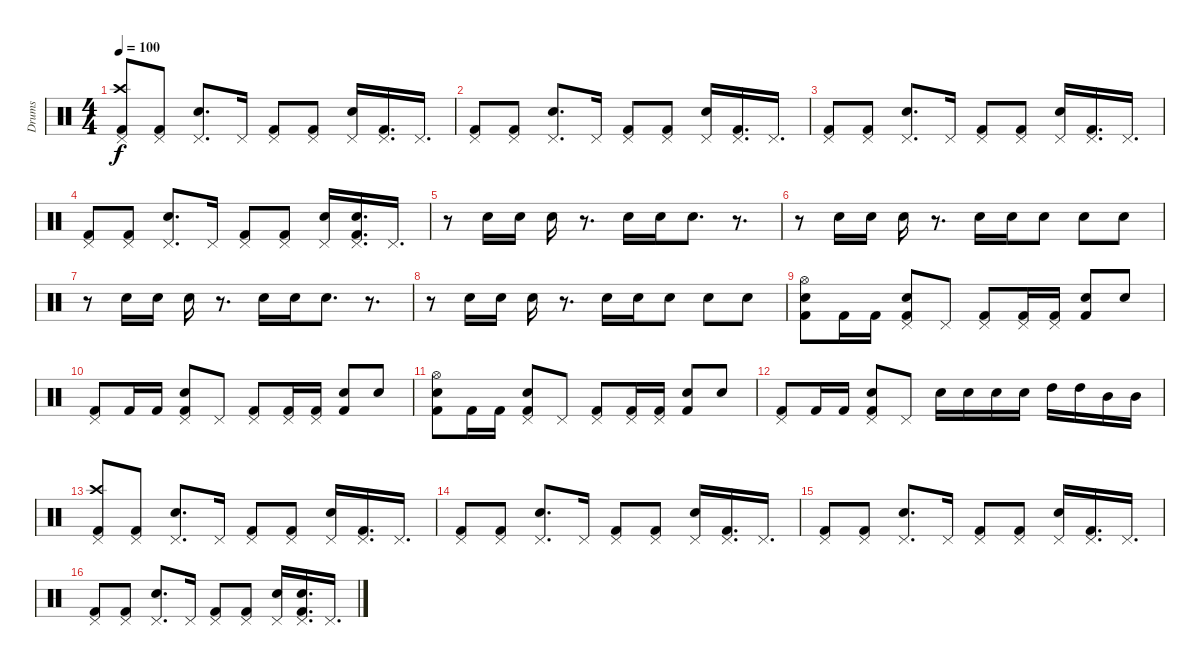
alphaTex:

\track ("Drums" "Drums") {instrument percussion}
\staff
\articulation defaults
\ts (4 4)
\tempo 100
\clef neutral
\ks c
("Pedal Hi-Hat (hit)" "Crash high (hit)" "Kick (hit) 2").8{dy f} ("Pedal Hi-Hat (hit)" "Kick (hit) 2").8 ("Electric Snare (hit)" "Pedal Hi-Hat (hit)").8{d} "Pedal Hi-Hat (hit)".16 ("Pedal Hi-Hat (hit)" "Kick (hit) 2").8 ("Pedal Hi-Hat (hit)" "Kick (hit) 2").8 ("Electric Snare (hit)" "Pedal Hi-Hat (hit)").16 ("Pedal Hi-Hat (hit)" "Kick (hit) 2").16{d} "Pedal Hi-Hat (hit)".16{d} |
("Pedal Hi-Hat (hit)" "Kick (hit) 2").8 ("Pedal Hi-Hat (hit)" "Kick (hit) 2").8 ("Electric Snare (hit)" "Pedal Hi-Hat (hit)").8{d} "Pedal Hi-Hat (hit)".16 ("Pedal Hi-Hat (hit)" "Kick (hit) 2").8 ("Pedal Hi-Hat (hit)" "Kick (hit) 2").8 ("Electric Snare (hit)" "Pedal Hi-Hat (hit)").16 ("Pedal Hi-Hat (hit)" "Kick (hit) 2").16{d} "Pedal Hi-Hat (hit)".16{d} |
("Pedal Hi-Hat (hit)" "Kick (hit) 2").8 ("Pedal Hi-Hat (hit)" "Kick (hit) 2").8 ("Electric Snare (hit)" "Pedal Hi-Hat (hit)").8{d} "Pedal Hi-Hat (hit)".16 ("Pedal Hi-Hat (hit)" "Kick (hit) 2").8 ("Pedal Hi-Hat (hit)" "Kick (hit) 2").8 ("Electric Snare (hit)" "Pedal Hi-Hat (hit)").16 ("Pedal Hi-Hat (hit)" "Kick (hit) 2").16{d} "Pedal Hi-Hat (hit)".16{d} |
("Pedal Hi-Hat (hit)" "Kick (hit) 2").8 ("Pedal Hi-Hat (hit)" "Kick (hit) 2").8 ("Electric Snare (hit)" "Pedal Hi-Hat (hit)").8{d} "Pedal Hi-Hat (hit)".16 ("Pedal Hi-Hat (hit)" "Kick (hit) 2").8 ("Pedal Hi-Hat (hit)" "Kick (hit) 2").8 ("Electric Snare (hit)" "Pedal Hi-Hat (hit)").16 ("Pedal Hi-Hat (hit)" "Electric Snare (hit)" "Kick (hit) 2").16{d} "Pedal Hi-Hat (hit)".16{d} |
r.8 "Electric Snare (hit)".16 "Electric Snare (hit)".16 "Electric Snare (hit)".16 r.8{d} "Electric Snare (hit)".16 "Electric Snare (hit)".16 "Electric Snare (hit)".8{d} r.8{d} |
r.8 "Electric Snare (hit)".16 "Electric Snare (hit)".16 "Electric Snare (hit)".16 r.8{d} "Electric Snare (hit)".16 "Electric Snare (hit)".16 "Electric Snare (hit)".8 "Electric Snare (hit)".8 "Electric Snare (hit)".8 |
r.8 "Electric Snare (hit)".16 "Electric Snare (hit)".16 "Electric Snare (hit)".16 r.8{d} "Electric Snare (hit)".16 "Electric Snare (hit)".16 "Electric Snare (hit)".8{d} r.8{d} |
r.8 "Electric Snare (hit)".16 "Electric Snare (hit)".16 "Electric Snare (hit)".16 r.8{d} "Electric Snare (hit)".16 "Electric Snare (hit)".16 "Electric Snare (hit)".8 "Electric Snare (hit)".8 "Electric Snare (hit)".8 |
("Hi-Hat (open)" "Electric Snare (hit)" "Kick (hit) 2").8 "Kick (hit) 2".16 "Kick (hit) 2".16 ("Electric Snare (hit)" "Pedal Hi-Hat (hit)" "Kick (hit) 2").8 "Pedal Hi-Hat (hit)".8 ("Pedal Hi-Hat (hit)" "Kick (hit) 2").8 ("Pedal Hi-Hat (hit)" "Kick (hit) 2").16 ("Pedal Hi-Hat (hit)" "Kick (hit) 2").16 ("Electric Snare (hit)" "Kick (hit) 2").8 "Electric Snare (hit)".8 |
("Pedal Hi-Hat (hit)" "Kick (hit) 2").8 "Kick (hit) 2".16 "Kick (hit) 2".16 ("Electric Snare (hit)" "Pedal Hi-Hat (hit)" "Kick (hit) 2").8 "Pedal Hi-Hat (hit)".8 ("Pedal Hi-Hat (hit)" "Kick (hit) 2").8 ("Pedal Hi-Hat (hit)" "Kick (hit) 2").16 ("Pedal Hi-Hat (hit)" "Kick (hit) 2").16 ("Electric Snare (hit)" "Kick (hit) 2").8 "Electric Snare (hit)".8 |
("Hi-Hat (open)" "Electric Snare (hit)" "Kick (hit) 2").8 "Kick (hit) 2".16 "Kick (hit) 2".16 ("Electric Snare (hit)" "Pedal Hi-Hat (hit)" "Kick (hit) 2").8 "Pedal Hi-Hat (hit)".8 ("Pedal Hi-Hat (hit)" "Kick (hit) 2").8 ("Pedal Hi-Hat (hit)" "Kick (hit) 2").16 ("Pedal Hi-Hat (hit)" "Kick (hit) 2").16 ("Electric Snare (hit)" "Kick (hit) 2").8 "Electric Snare (hit)".8 |
("Pedal Hi-Hat (hit)" "Kick (hit) 2").8 "Kick (hit) 2".16 "Kick (hit) 2".16 ("Electric Snare (hit)" "Pedal Hi-Hat (hit)" "Kick (hit) 2").8 "Pedal Hi-Hat (hit)".8 "Electric Snare (hit)".16 "Electric Snare (hit)".16 "Electric Snare (hit)".16 "Electric Snare (hit)".16 "High Tom (hit)".16 "High Tom (hit)".16 "Mid Tom (hit)".16 "Mid Tom (hit)".16 |
("Pedal Hi-Hat (hit)" "Crash high (hit)" "Kick (hit) 2").8 ("Pedal Hi-Hat (hit)" "Kick (hit) 2").8 ("Electric Snare (hit)" "Pedal Hi-Hat (hit)").8{d} "Pedal Hi-Hat (hit)".16 ("Pedal Hi-Hat (hit)" "Kick (hit) 2").8 ("Pedal Hi-Hat (hit)" "Kick (hit) 2").8 ("Electric Snare (hit)" "Pedal Hi-Hat (hit)").16 ("Pedal Hi-Hat (hit)" "Kick (hit) 2").16{d} "Pedal Hi-Hat (hit)".16{d} |
("Pedal Hi-Hat (hit)" "Kick (hit) 2").8 ("Pedal Hi-Hat (hit)" "Kick (hit) 2").8 ("Electric Snare (hit)" "Pedal Hi-Hat (hit)").8{d} "Pedal Hi-Hat (hit)".16 ("Pedal Hi-Hat (hit)" "Kick (hit) 2").8 ("Pedal Hi-Hat (hit)" "Kick (hit) 2").8 ("Electric Snare (hit)" "Pedal Hi-Hat (hit)").16 ("Pedal Hi-Hat (hit)" "Kick (hit) 2").16{d} "Pedal Hi-Hat (hit)".16{d} |
("Pedal Hi-Hat (hit)" "Kick (hit) 2").8 ("Pedal Hi-Hat (hit)" "Kick (hit) 2").8 ("Electric Snare (hit)" "Pedal Hi-Hat (hit)").8{d} "Pedal Hi-Hat (hit)".16 ("Pedal Hi-Hat (hit)" "Kick (hit) 2").8 ("Pedal Hi-Hat (hit)" "Kick (hit) 2").8 ("Electric Snare (hit)" "Pedal Hi-Hat (hit)").16 ("Pedal Hi-Hat (hit)" "Kick (hit) 2").16{d} "Pedal Hi-Hat (hit)".16{d} |
("Pedal Hi-Hat (hit)" "Kick (hit) 2").8 ("Pedal Hi-Hat (hit)" "Kick (hit) 2").8 ("Electric Snare (hit)" "Pedal Hi-Hat (hit)").8{d} "Pedal Hi-Hat (hit)".16 ("Pedal Hi-Hat (hit)" "Kick (hit) 2").8 ("Pedal Hi-Hat (hit)" "Kick (hit) 2").8 ("Electric Snare (hit)" "Pedal Hi-Hat (hit)").16 ("Pedal Hi-Hat (hit)" "Electric Snare (hit)" "Kick (hit) 2").16{d} "Pedal Hi-Hat (hit)".16{d}
